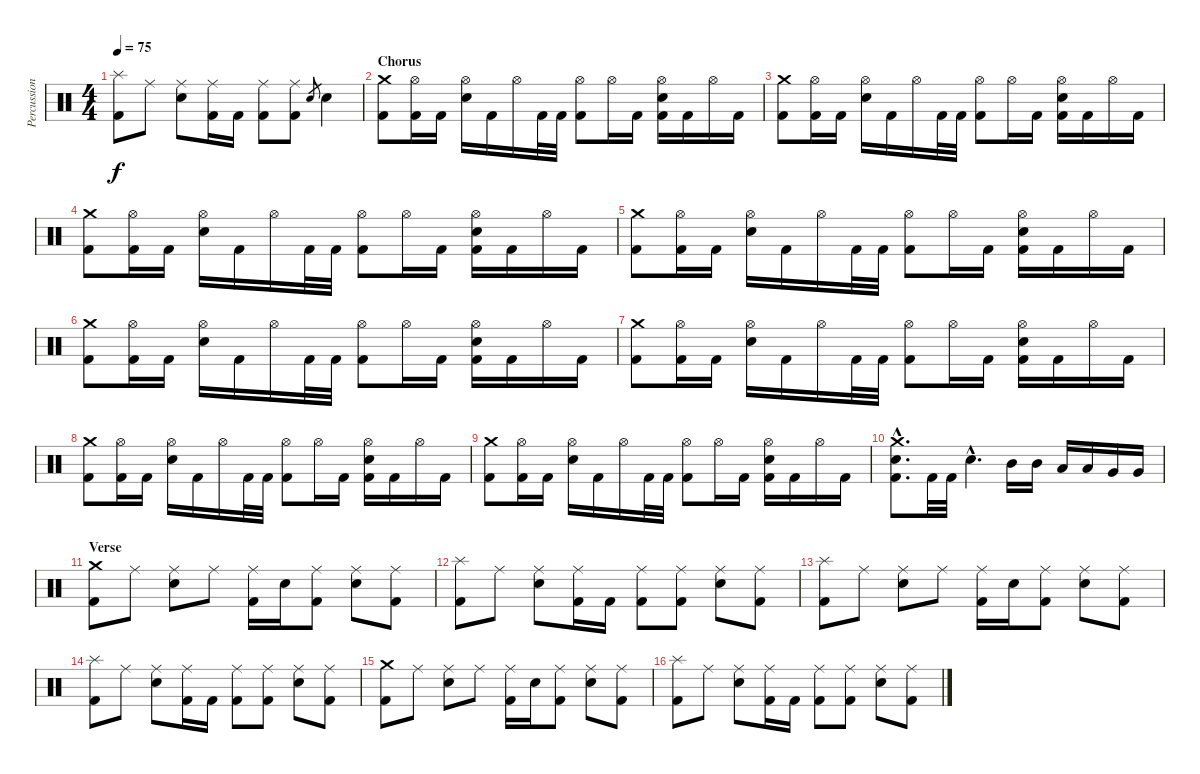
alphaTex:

\track ("Percussion" "Percussion") {instrument percussion}
\staff {score}
\articulation defaults
\ts (4 4)
\tempo 75
\clef neutral
\ks c
("Splash (hit)" "Kick (hit) 2").8{dy f} "Ride (middle)".8 ("Ride (middle)" "Electric Snare (hit)").8 ("Ride (middle)" "Kick (hit) 2").16 "Kick (hit) 2".16 ("Ride (middle)" "Kick (hit) 2").8 ("Ride (middle)" "Kick (hit) 2").8 "Electric Snare (hit)".8{gr} "Electric Snare (hit)".4 |
\section ("" "Chorus")
("Crash medium (hit)" "Kick (hit) 2").8 ("Hi-Hat (open)" "Kick (hit) 2").16 "Kick (hit) 2".16 ("Hi-Hat (open)" "Electric Snare (hit)").16 "Kick (hit) 2".16 "Hi-Hat (open)".16 "Kick (hit) 2".32 "Kick (hit) 2".32 ("Hi-Hat (open)" "Kick (hit) 2").8 "Hi-Hat (open)".16 "Kick (hit) 2".16 ("Hi-Hat (open)" "Electric Snare (hit)" "Kick (hit) 2").16 "Kick (hit) 2".16 "Hi-Hat (open)".16 "Kick (hit) 2".16 |
("Crash medium (hit)" "Kick (hit) 2").8 ("Hi-Hat (open)" "Kick (hit) 2").16 "Kick (hit) 2".16 ("Hi-Hat (open)" "Electric Snare (hit)").16 "Kick (hit) 2".16 "Hi-Hat (open)".16 "Kick (hit) 2".32 "Kick (hit) 2".32 ("Hi-Hat (open)" "Kick (hit) 2").8 "Hi-Hat (open)".16 "Kick (hit) 2".16 ("Hi-Hat (open)" "Electric Snare (hit)" "Kick (hit) 2").16 "Kick (hit) 2".16 "Hi-Hat (open)".16 "Kick (hit) 2".16 |
("Crash medium (hit)" "Kick (hit) 2").8 ("Hi-Hat (open)" "Kick (hit) 2").16 "Kick (hit) 2".16 ("Hi-Hat (open)" "Electric Snare (hit)").16 "Kick (hit) 2".16 "Hi-Hat (open)".16 "Kick (hit) 2".32 "Kick (hit) 2".32 ("Hi-Hat (open)" "Kick (hit) 2").8 "Hi-Hat (open)".16 "Kick (hit) 2".16 ("Hi-Hat (open)" "Electric Snare (hit)" "Kick (hit) 2").16 "Kick (hit) 2".16 "Hi-Hat (open)".16 "Kick (hit) 2".16 |
("Crash medium (hit)" "Kick (hit) 2").8 ("Hi-Hat (open)" "Kick (hit) 2").16 "Kick (hit) 2".16 ("Hi-Hat (open)" "Electric Snare (hit)").16 "Kick (hit) 2".16 "Hi-Hat (open)".16 "Kick (hit) 2".32 "Kick (hit) 2".32 ("Hi-Hat (open)" "Kick (hit) 2").8 "Hi-Hat (open)".16 "Kick (hit) 2".16 ("Hi-Hat (open)" "Electric Snare (hit)" "Kick (hit) 2").16 "Kick (hit) 2".16 "Hi-Hat (open)".16 "Kick (hit) 2".16 |
("Crash medium (hit)" "Kick (hit) 2").8 ("Hi-Hat (open)" "Kick (hit) 2").16 "Kick (hit) 2".16 ("Hi-Hat (open)" "Electric Snare (hit)").16 "Kick (hit) 2".16 "Hi-Hat (open)".16 "Kick (hit) 2".32 "Kick (hit) 2".32 ("Hi-Hat (open)" "Kick (hit) 2").8 "Hi-Hat (open)".16 "Kick (hit) 2".16 ("Hi-Hat (open)" "Electric Snare (hit)" "Kick (hit) 2").16 "Kick (hit) 2".16 "Hi-Hat (open)".16 "Kick (hit) 2".16 |
("Crash medium (hit)" "Kick (hit) 2").8 ("Hi-Hat (open)" "Kick (hit) 2").16 "Kick (hit) 2".16 ("Hi-Hat (open)" "Electric Snare (hit)").16 "Kick (hit) 2".16 "Hi-Hat (open)".16 "Kick (hit) 2".32 "Kick (hit) 2".32 ("Hi-Hat (open)" "Kick (hit) 2").8 "Hi-Hat (open)".16 "Kick (hit) 2".16 ("Hi-Hat (open)" "Electric Snare (hit)" "Kick (hit) 2").16 "Kick (hit) 2".16 "Hi-Hat (open)".16 "Kick (hit) 2".16 |
("Crash medium (hit)" "Kick (hit) 2").8 ("Hi-Hat (open)" "Kick (hit) 2").16 "Kick (hit) 2".16 ("Hi-Hat (open)" "Electric Snare (hit)").16 "Kick (hit) 2".16 "Hi-Hat (open)".16 "Kick (hit) 2".32 "Kick (hit) 2".32 ("Hi-Hat (open)" "Kick (hit) 2").8 "Hi-Hat (open)".16 "Kick (hit) 2".16 ("Hi-Hat (open)" "Electric Snare (hit)" "Kick (hit) 2").16 "Kick (hit) 2".16 "Hi-Hat (open)".16 "Kick (hit) 2".16 |
("Crash medium (hit)" "Kick (hit) 2").8 ("Hi-Hat (open)" "Kick (hit) 2").16 "Kick (hit) 2".16 ("Hi-Hat (open)" "Electric Snare (hit)").16 "Kick (hit) 2".16 "Hi-Hat (open)".16 "Kick (hit) 2".32 "Kick (hit) 2".32 ("Hi-Hat (open)" "Kick (hit) 2").8 "Hi-Hat (open)".16 "Kick (hit) 2".16 ("Hi-Hat (open)" "Electric Snare (hit)" "Kick (hit) 2").16 "Kick (hit) 2".16 "Hi-Hat (open)".16 "Kick (hit) 2".16 |
("Crash medium (hit)"{hac} "Electric Snare (hit)"{hac} "Kick (hit) 2"{hac}).8{d} "Kick (hit) 2".32 "Kick (hit) 2".32 "Electric Snare (hit)"{hac}.4{d} "Mid Tom (hit)".16 "Mid Tom (hit)".16 "Low Tom (hit)".16 "Low Tom (hit)".16 "Very Low Tom (hit)".16 "Very Low Tom (hit)".16 |
\section ("" "Verse")
("Crash medium (hit)" "Kick (hit) 2").8 "Ride (middle)".8 ("Ride (middle)" "Electric Snare (hit)").8 "Ride (middle)".8 ("Ride (middle)" "Kick (hit) 2").16 "Electric Snare (hit)".16 ("Ride (middle)" "Kick (hit) 2").8 ("Ride (middle)" "Electric Snare (hit)").8 ("Ride (middle)" "Kick (hit) 2").8 |
("Splash (hit)" "Kick (hit) 2").8 "Ride (middle)".8 ("Ride (middle)" "Electric Snare (hit)").8 ("Ride (middle)" "Kick (hit) 2").16 "Kick (hit) 2".16 ("Ride (middle)" "Kick (hit) 2").8 ("Ride (middle)" "Kick (hit) 2").8 ("Ride (middle)" "Electric Snare (hit)").8 ("Ride (middle)" "Kick (hit) 2").8 |
("Splash (hit)" "Kick (hit) 2").8 "Ride (middle)".8 ("Ride (middle)" "Electric Snare (hit)").8 "Ride (middle)".8 ("Ride (middle)" "Kick (hit) 2").16 "Electric Snare (hit)".16 ("Ride (middle)" "Kick (hit) 2").8 ("Ride (middle)" "Electric Snare (hit)").8 ("Ride (middle)" "Kick (hit) 2").8 |
("Splash (hit)" "Kick (hit) 2").8 "Ride (middle)".8 ("Ride (middle)" "Electric Snare (hit)").8 ("Ride (middle)" "Kick (hit) 2").16 "Kick (hit) 2".16 ("Ride (middle)" "Kick (hit) 2").8 ("Ride (middle)" "Kick (hit) 2").8 ("Ride (middle)" "Electric Snare (hit)").8 ("Ride (middle)" "Kick (hit) 2").8 |
("Crash medium (hit)" "Kick (hit) 2").8 "Ride (middle)".8 ("Ride (middle)" "Electric Snare (hit)").8 "Ride (middle)".8 ("Ride (middle)" "Kick (hit) 2").16 "Electric Snare (hit)".16 ("Ride (middle)" "Kick (hit) 2").8 ("Ride (middle)" "Electric Snare (hit)").8 ("Ride (middle)" "Kick (hit) 2").8 |
("Splash (hit)" "Kick (hit) 2").8 "Ride (middle)".8 ("Ride (middle)" "Electric Snare (hit)").8 ("Ride (middle)" "Kick (hit) 2").16 "Kick (hit) 2".16 ("Ride (middle)" "Kick (hit) 2").8 ("Ride (middle)" "Kick (hit) 2").8 ("Ride (middle)" "Electric Snare (hit)").8 ("Ride (middle)" "Kick (hit) 2").8
